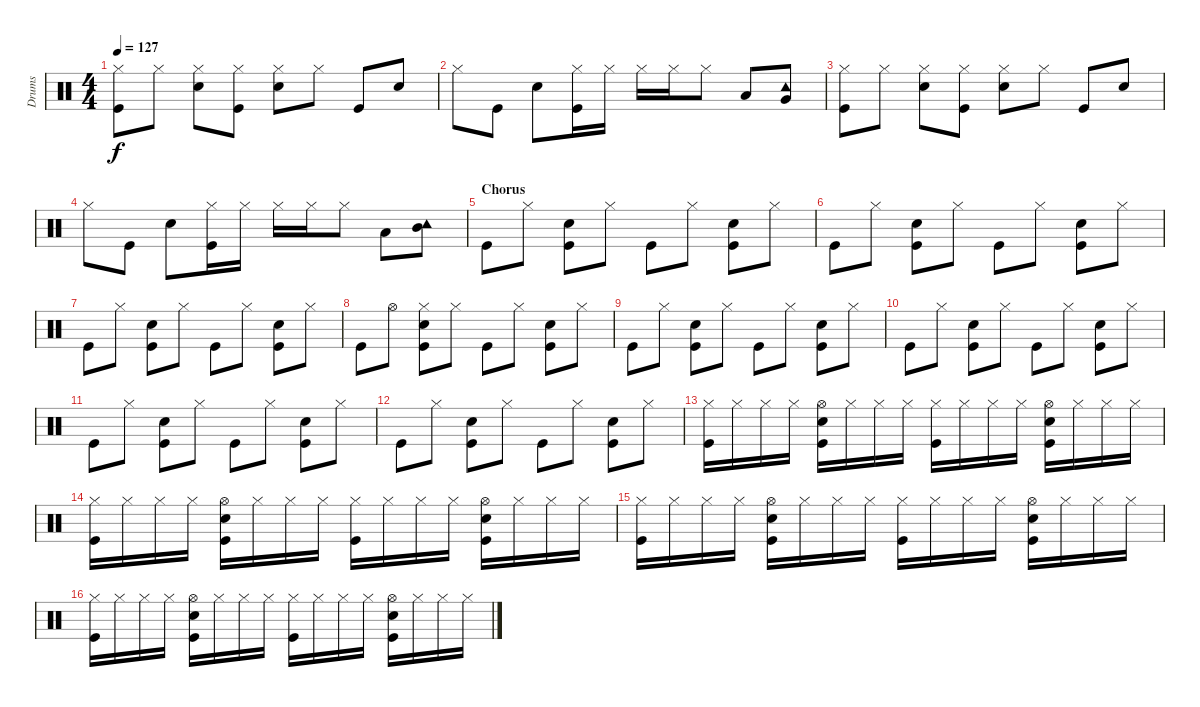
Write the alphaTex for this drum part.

\track ("Drums" "Drums") {instrument percussion}
\staff {score}
\articulation defaults
\ts (4 4)
\tempo 127
\clef neutral
\ks c
("Hi-Hat (closed)" "Kick (hit)").8{dy f} "Hi-Hat (closed)".8 ("Hi-Hat (closed)" "Snare (hit) 2").8 ("Hi-Hat (closed)" "Kick (hit)").8 ("Hi-Hat (closed)" "Snare (hit) 2").8 "Hi-Hat (closed)".8 "Kick (hit)".8 "Snare (hit) 2".8 |
"Hi-Hat (closed)".8 "Kick (hit)".8 "Snare (hit) 2".8 ("Hi-Hat (closed)" "Kick (hit)").16 "Hi-Hat (closed)".16 "Hi-Hat (closed)".16 "Hi-Hat (closed)".16 "Hi-Hat (closed)".8 "Low Tom (hit)".8 ("Tambourine (hit)" "Very Low Tom (hit)").8 |
("Hi-Hat (closed)" "Kick (hit)").8 "Hi-Hat (closed)".8 ("Hi-Hat (closed)" "Snare (hit) 2").8 ("Hi-Hat (closed)" "Kick (hit)").8 ("Hi-Hat (closed)" "Snare (hit) 2").8 "Hi-Hat (closed)".8 "Kick (hit)".8 "Snare (hit) 2".8 |
"Hi-Hat (closed)".8 "Kick (hit)".8 "Snare (hit) 2".8 ("Hi-Hat (closed)" "Kick (hit)").16 "Hi-Hat (closed)".16 "Hi-Hat (closed)".16 "Hi-Hat (closed)".16 "Hi-Hat (closed)".8 "Low Tom (hit)".8 ("Tambourine (hit)" "Mid Tom (hit)").8 |
\section ("" "Chorus")
"Kick (hit)".8 "Hi-Hat (closed)".8 ("Snare (hit) 2" "Kick (hit)").8 "Hi-Hat (closed)".8 "Kick (hit)".8 "Hi-Hat (closed)".8 ("Snare (hit) 2" "Kick (hit)").8 "Hi-Hat (closed)".8 |
"Kick (hit)".8 "Hi-Hat (closed)".8 ("Snare (hit) 2" "Kick (hit)").8 "Hi-Hat (closed)".8 "Kick (hit)".8 "Hi-Hat (closed)".8 ("Snare (hit) 2" "Kick (hit)").8 "Hi-Hat (closed)".8 |
"Kick (hit)".8 "Hi-Hat (closed)".8 ("Snare (hit) 2" "Kick (hit)").8 "Hi-Hat (closed)".8 "Kick (hit)".8 "Hi-Hat (closed)".8 ("Snare (hit) 2" "Kick (hit)").8 "Hi-Hat (closed)".8 |
"Kick (hit)".8 "Hi-Hat (open)".8 ("Hi-Hat (closed)" "Snare (hit) 2" "Kick (hit)").8 "Hi-Hat (closed)".8 "Kick (hit)".8 "Hi-Hat (closed)".8 ("Snare (hit) 2" "Kick (hit)").8 "Hi-Hat (closed)".8 |
"Kick (hit)".8 "Hi-Hat (closed)".8 ("Snare (hit) 2" "Kick (hit)").8 "Hi-Hat (closed)".8 "Kick (hit)".8 "Hi-Hat (closed)".8 ("Snare (hit) 2" "Kick (hit)").8 "Hi-Hat (closed)".8 |
"Kick (hit)".8 "Hi-Hat (closed)".8 ("Snare (hit) 2" "Kick (hit)").8 "Hi-Hat (closed)".8 "Kick (hit)".8 "Hi-Hat (closed)".8 ("Snare (hit) 2" "Kick (hit)").8 "Hi-Hat (closed)".8 |
"Kick (hit)".8 "Hi-Hat (closed)".8 ("Snare (hit) 2" "Kick (hit)").8 "Hi-Hat (closed)".8 "Kick (hit)".8 "Hi-Hat (closed)".8 ("Snare (hit) 2" "Kick (hit)").8 "Hi-Hat (closed)".8 |
"Kick (hit)".8 "Hi-Hat (closed)".8 ("Snare (hit) 2" "Kick (hit)").8 "Hi-Hat (closed)".8 "Kick (hit)".8 "Hi-Hat (closed)".8 ("Snare (hit) 2" "Kick (hit)").8 "Hi-Hat (closed)".8 |
("Hi-Hat (closed)" "Kick (hit)").16 "Hi-Hat (closed)".16 "Hi-Hat (closed)".16 "Hi-Hat (closed)".16 ("Hi-Hat (open)" "Snare (hit) 2" "Kick (hit)").16 "Hi-Hat (closed)".16 "Hi-Hat (closed)".16 "Hi-Hat (closed)".16 ("Hi-Hat (closed)" "Kick (hit)").16 "Hi-Hat (closed)".16 "Hi-Hat (closed)".16 "Hi-Hat (closed)".16 ("Hi-Hat (open)" "Snare (hit) 2" "Kick (hit)").16 "Hi-Hat (closed)".16 "Hi-Hat (closed)".16 "Hi-Hat (closed)".16 |
("Hi-Hat (closed)" "Kick (hit)").16 "Hi-Hat (closed)".16 "Hi-Hat (closed)".16 "Hi-Hat (closed)".16 ("Hi-Hat (open)" "Snare (hit) 2" "Kick (hit)").16 "Hi-Hat (closed)".16 "Hi-Hat (closed)".16 "Hi-Hat (closed)".16 ("Hi-Hat (closed)" "Kick (hit)").16 "Hi-Hat (closed)".16 "Hi-Hat (closed)".16 "Hi-Hat (closed)".16 ("Hi-Hat (open)" "Snare (hit) 2" "Kick (hit)").16 "Hi-Hat (closed)".16 "Hi-Hat (closed)".16 "Hi-Hat (closed)".16 |
("Hi-Hat (closed)" "Kick (hit)").16 "Hi-Hat (closed)".16 "Hi-Hat (closed)".16 "Hi-Hat (closed)".16 ("Hi-Hat (open)" "Snare (hit) 2" "Kick (hit)").16 "Hi-Hat (closed)".16 "Hi-Hat (closed)".16 "Hi-Hat (closed)".16 ("Hi-Hat (closed)" "Kick (hit)").16 "Hi-Hat (closed)".16 "Hi-Hat (closed)".16 "Hi-Hat (closed)".16 ("Hi-Hat (open)" "Snare (hit) 2" "Kick (hit)").16 "Hi-Hat (closed)".16 "Hi-Hat (closed)".16 "Hi-Hat (closed)".16 |
("Hi-Hat (closed)" "Kick (hit)").16 "Hi-Hat (closed)".16 "Hi-Hat (closed)".16 "Hi-Hat (closed)".16 ("Hi-Hat (open)" "Snare (hit) 2" "Kick (hit)").16 "Hi-Hat (closed)".16 "Hi-Hat (closed)".16 "Hi-Hat (closed)".16 ("Hi-Hat (closed)" "Kick (hit)").16 "Hi-Hat (closed)".16 "Hi-Hat (closed)".16 "Hi-Hat (closed)".16 ("Hi-Hat (open)" "Snare (hit) 2" "Kick (hit)").16 "Hi-Hat (closed)".16 "Hi-Hat (closed)".16 "Hi-Hat (closed)".16
